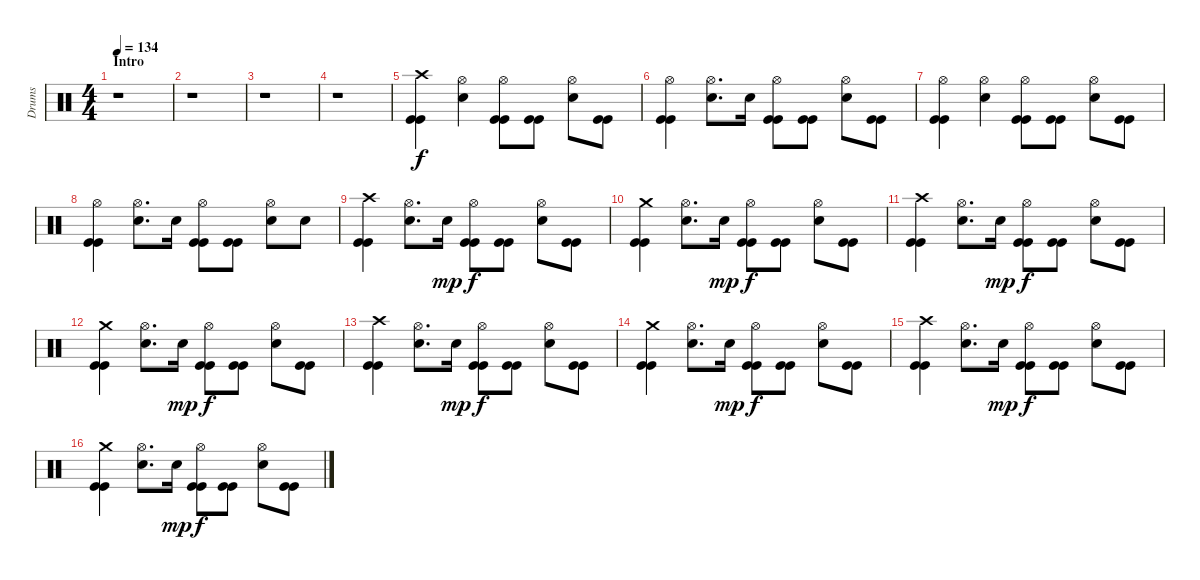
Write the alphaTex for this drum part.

\track ("Drums" "Drums") {instrument percussion}
\staff {score}
\articulation defaults
\ts (4 4)
\section ("" "Intro")
\tempo 134
\clef neutral
\ks c
r.1{dy f} |
r.1 |
r.1 |
r.1 |
("Crash high (hit)" "Kick (hit)" "Kick (hit)").4 ("Hi-Hat (open)" "Electric Snare (hit)").4 ("Hi-Hat (open)" "Kick (hit)" "Kick (hit)").8 ("Kick (hit)" "Kick (hit)").8 ("Hi-Hat (open)" "Electric Snare (hit)").8 ("Kick (hit)" "Kick (hit)").8 |
("Hi-Hat (open)" "Kick (hit)" "Kick (hit)").4 ("Hi-Hat (open)" "Electric Snare (hit)").8{d} "Electric Snare (hit)".16 ("Hi-Hat (open)" "Kick (hit)" "Kick (hit)").8 ("Kick (hit)" "Kick (hit)").8 ("Hi-Hat (open)" "Electric Snare (hit)").8 ("Kick (hit)" "Kick (hit)").8 |
("Hi-Hat (open)" "Kick (hit)" "Kick (hit)").4 ("Hi-Hat (open)" "Electric Snare (hit)").4 ("Hi-Hat (open)" "Kick (hit)" "Kick (hit)").8 ("Kick (hit)" "Kick (hit)").8 ("Hi-Hat (open)" "Electric Snare (hit)").8 ("Kick (hit)" "Kick (hit)").8 |
("Hi-Hat (open)" "Kick (hit)" "Kick (hit)").4 ("Hi-Hat (open)" "Electric Snare (hit)").8{d} "Electric Snare (hit)".16 ("Hi-Hat (open)" "Kick (hit)" "Kick (hit)").8 ("Kick (hit)" "Kick (hit)").8 ("Hi-Hat (open)" "Electric Snare (hit)").8 "Electric Snare (hit)".8 |
("Crash high (hit)" "Kick (hit)" "Kick (hit)").4 ("Hi-Hat (open)" "Electric Snare (hit)").8{d} "Electric Snare (hit)".16{dy mp} ("Hi-Hat (open)" "Kick (hit)" "Kick (hit)").8{dy f} ("Kick (hit)" "Kick (hit)").8 ("Hi-Hat (open)" "Electric Snare (hit)").8 ("Kick (hit)" "Kick (hit)").8 |
("Crash medium (hit)" "Kick (hit)" "Kick (hit)").4 ("Hi-Hat (open)" "Electric Snare (hit)").8{d} "Electric Snare (hit)".16{dy mp} ("Hi-Hat (open)" "Kick (hit)" "Kick (hit)").8{dy f} ("Kick (hit)" "Kick (hit)").8 ("Hi-Hat (open)" "Electric Snare (hit)").8 ("Kick (hit)" "Kick (hit)").8 |
("Crash high (hit)" "Kick (hit)" "Kick (hit)").4 ("Hi-Hat (open)" "Electric Snare (hit)").8{d} "Electric Snare (hit)".16{dy mp} ("Hi-Hat (open)" "Kick (hit)" "Kick (hit)").8{dy f} ("Kick (hit)" "Kick (hit)").8 ("Hi-Hat (open)" "Electric Snare (hit)").8 ("Kick (hit)" "Kick (hit)").8 |
("Crash medium (hit)" "Kick (hit)" "Kick (hit)").4 ("Hi-Hat (open)" "Electric Snare (hit)").8{d} "Electric Snare (hit)".16{dy mp} ("Hi-Hat (open)" "Kick (hit)" "Kick (hit)").8{dy f} ("Kick (hit)" "Kick (hit)").8 ("Hi-Hat (open)" "Electric Snare (hit)").8 ("Kick (hit)" "Kick (hit)").8 |
("Crash high (hit)" "Kick (hit)" "Kick (hit)").4 ("Hi-Hat (open)" "Electric Snare (hit)").8{d} "Electric Snare (hit)".16{dy mp} ("Hi-Hat (open)" "Kick (hit)" "Kick (hit)").8{dy f} ("Kick (hit)" "Kick (hit)").8 ("Hi-Hat (open)" "Electric Snare (hit)").8 ("Kick (hit)" "Kick (hit)").8 |
("Crash medium (hit)" "Kick (hit)" "Kick (hit)").4 ("Hi-Hat (open)" "Electric Snare (hit)").8{d} "Electric Snare (hit)".16{dy mp} ("Hi-Hat (open)" "Kick (hit)" "Kick (hit)").8{dy f} ("Kick (hit)" "Kick (hit)").8 ("Hi-Hat (open)" "Electric Snare (hit)").8 ("Kick (hit)" "Kick (hit)").8 |
("Crash high (hit)" "Kick (hit)" "Kick (hit)").4 ("Hi-Hat (open)" "Electric Snare (hit)").8{d} "Electric Snare (hit)".16{dy mp} ("Hi-Hat (open)" "Kick (hit)" "Kick (hit)").8{dy f} ("Kick (hit)" "Kick (hit)").8 ("Hi-Hat (open)" "Electric Snare (hit)").8 ("Kick (hit)" "Kick (hit)").8 |
("Crash medium (hit)" "Kick (hit)" "Kick (hit)").4 ("Hi-Hat (open)" "Electric Snare (hit)").8{d} "Electric Snare (hit)".16{dy mp} ("Hi-Hat (open)" "Kick (hit)" "Kick (hit)").8{dy f} ("Kick (hit)" "Kick (hit)").8 ("Hi-Hat (open)" "Electric Snare (hit)").8 ("Kick (hit)" "Kick (hit)").8
